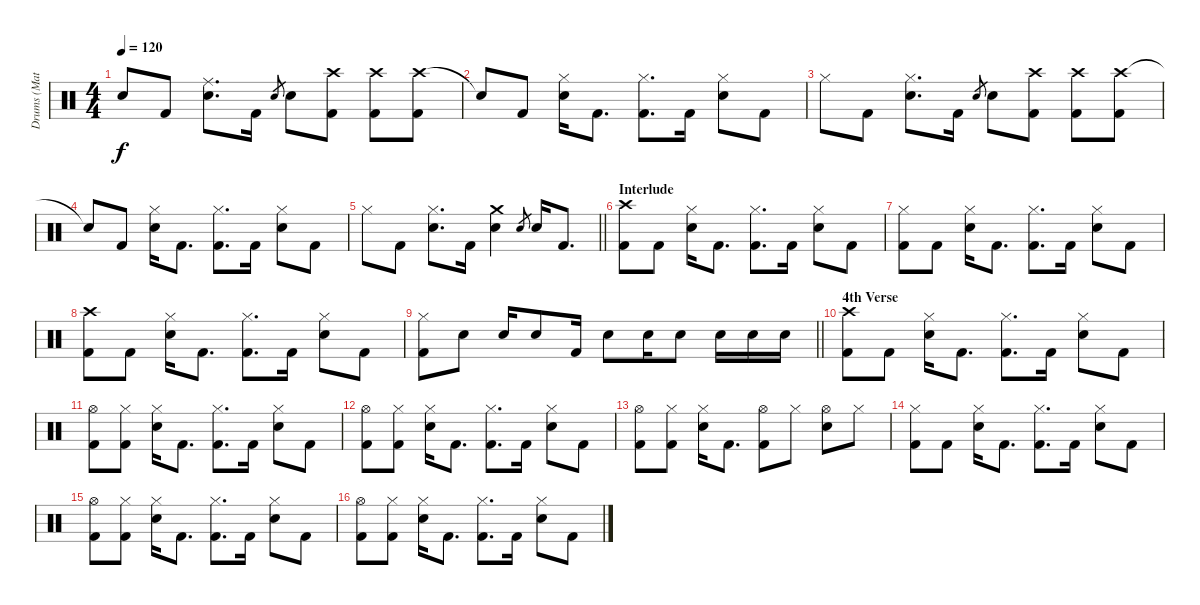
\track ("Drums (Matt)" "Drums (Mat") {instrument percussion}
\staff {score}
\articulation defaults
\ts (4 4)
\tempo 120
\clef neutral
\ks c "Snare (hit)"{t}.8{dy f} "Kick (hit) 2".8
("Ride (middle)" "Snare (hit) 2").8{d} "Kick (hit) 2".16 "Snare (hit) 2".8{gr} "Snare (hit) 2".8 ("Crash high (hit)" "Kick (hit) 2").8 ("Crash high (hit)" "Kick (hit) 2").8 ("Crash high (hit)" "Kick (hit) 2").8 |
"Snare (hit)"{t}.8 "Kick (hit) 2".8 ("Hi-Hat (closed)" "Snare (hit) 2").16 "Kick (hit) 2".8{d} ("Hi-Hat (closed)" "Kick (hit) 2").8{d} "Kick (hit) 2".16 ("Hi-Hat (closed)" "Snare (hit) 2").8 "Kick (hit) 2".8 |
"Hi-Hat (closed)".8 "Kick (hit) 2".8 ("Hi-Hat (closed)" "Snare (hit) 2").8{d} "Kick (hit) 2".16 "Snare (hit) 2".8{gr} "Snare (hit) 2".8 ("Crash high (hit)" "Kick (hit) 2").8 ("Crash high (hit)" "Kick (hit) 2").8 ("Crash high (hit)" "Kick (hit) 2").8 |
"Snare (hit)"{t}.8 "Kick (hit) 2".8 ("Hi-Hat (closed)" "Snare (hit) 2").16 "Kick (hit) 2".8{d} ("Hi-Hat (closed)" "Kick (hit) 2").8{d} "Kick (hit) 2".16 ("Hi-Hat (closed)" "Snare (hit) 2").8 "Kick (hit) 2".8 |
\barLineRight lightlight "Hi-Hat (closed)".8 "Kick (hit) 2".8
("Hi-Hat (closed)" "Snare (hit) 2").8{d} "Kick (hit) 2".16 ("Crash medium (hit)" "Snare (hit) 2").4 "Snare (hit) 2".8{gr} "Snare (hit) 2".16 "Kick (hit) 2".8{d} |
\section ("" "Interlude")
("Crash high (hit)" "Kick (hit) 2").8 "Kick (hit) 2".8 ("Hi-Hat (closed)" "Snare (hit) 2").16 "Kick (hit) 2".8{d} ("Hi-Hat (closed)" "Kick (hit) 2").8{d} "Kick (hit) 2".16 ("Hi-Hat (closed)" "Snare (hit) 2").8 "Kick (hit) 2".8 |
("Hi-Hat (closed)" "Kick (hit) 2").8 "Kick (hit) 2".8 ("Hi-Hat (closed)" "Snare (hit) 2").16 "Kick (hit) 2".8{d} ("Hi-Hat (closed)" "Kick (hit) 2").8{d} "Kick (hit) 2".16 ("Hi-Hat (closed)" "Snare (hit) 2").8 "Kick (hit) 2".8 |
("Crash high (hit)" "Kick (hit) 2").8 "Kick (hit) 2".8 ("Hi-Hat (closed)" "Snare (hit) 2").16 "Kick (hit) 2".8{d} ("Hi-Hat (closed)" "Kick (hit) 2").8{d} "Kick (hit) 2".16 ("Hi-Hat (closed)" "Snare (hit) 2").8 "Kick (hit) 2".8 |
\barLineRight lightlight
("Hi-Hat (closed)" "Kick (hit) 2").8 "Snare (hit) 2".8 "Snare (hit) 2".16 "Snare (hit) 2".8 "Kick (hit) 2".16 "Snare (hit) 2".8 "Snare (hit) 2".16 "Snare (hit) 2".8 "Snare (hit) 2".16 "Snare (hit) 2".16 "Snare (hit) 2".16 |
\section ("" "4th Verse")
("Crash high (hit)" "Kick (hit) 2").8 "Kick (hit) 2".8 ("Hi-Hat (closed)" "Snare (hit) 2").16 "Kick (hit) 2".8{d} ("Hi-Hat (closed)" "Kick (hit) 2").8{d} "Kick (hit) 2".16 ("Hi-Hat (closed)" "Snare (hit) 2").8 "Kick (hit) 2".8 |
("Hi-Hat (open)" "Kick (hit) 2").8 ("Hi-Hat (closed)" "Kick (hit) 2").8 ("Hi-Hat (closed)" "Snare (hit) 2").16 "Kick (hit) 2".8{d} ("Hi-Hat (closed)" "Kick (hit) 2").8{d} "Kick (hit) 2".16 ("Hi-Hat (closed)" "Snare (hit) 2").8 "Kick (hit) 2".8 |
("Hi-Hat (open)" "Kick (hit) 2").8 ("Hi-Hat (closed)" "Kick (hit) 2").8 ("Hi-Hat (closed)" "Snare (hit) 2").16 "Kick (hit) 2".8{d} ("Hi-Hat (closed)" "Kick (hit) 2").8{d} "Kick (hit) 2".16 ("Hi-Hat (closed)" "Snare (hit) 2").8 "Kick (hit) 2".8 |
("Hi-Hat (open)" "Kick (hit) 2").8 ("Hi-Hat (closed)" "Kick (hit) 2").8 ("Hi-Hat (closed)" "Snare (hit) 2").16 "Kick (hit) 2".8{d} ("Hi-Hat (open)" "Kick (hit) 2").8 "Hi-Hat (closed)".8 ("Hi-Hat (open)" "Snare (hit) 2").8 "Hi-Hat (closed)".8 |
("Hi-Hat (closed)" "Kick (hit) 2").8 "Kick (hit) 2".8 ("Hi-Hat (closed)" "Snare (hit) 2").16 "Kick (hit) 2".8{d} ("Hi-Hat (closed)" "Kick (hit) 2").8{d} "Kick (hit) 2".16 ("Hi-Hat (closed)" "Snare (hit) 2").8 "Kick (hit) 2".8 |
("Hi-Hat (open)" "Kick (hit) 2").8 ("Hi-Hat (closed)" "Kick (hit) 2").8 ("Hi-Hat (closed)" "Snare (hit) 2").16 "Kick (hit) 2".8{d} ("Hi-Hat (closed)" "Kick (hit) 2").8{d} "Kick (hit) 2".16 ("Hi-Hat (closed)" "Snare (hit) 2").8 "Kick (hit) 2".8 |
("Hi-Hat (open)" "Kick (hit) 2").8 ("Hi-Hat (closed)" "Kick (hit) 2").8 ("Hi-Hat (closed)" "Snare (hit) 2").16 "Kick (hit) 2".8{d} ("Hi-Hat (closed)" "Kick (hit) 2").8{d} "Kick (hit) 2".16 ("Hi-Hat (closed)" "Snare (hit) 2").8 "Kick (hit) 2".8
